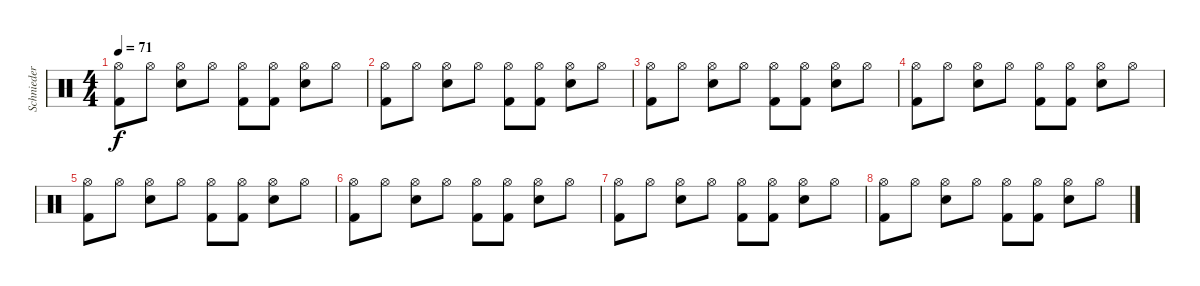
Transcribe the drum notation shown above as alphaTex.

\track ("Schnieder" "Schnieder") {instrument percussion}
\staff {score}
\articulation defaults
\ts (4 4)
\tempo 71
\clef neutral
\ks c
("Hi-Hat (open)" "Kick (hit) 2").8{dy f} "Hi-Hat (open)".8 ("Hi-Hat (open)" "Electric Snare (hit)").8 "Hi-Hat (open)".8 ("Hi-Hat (open)" "Kick (hit) 2").8 ("Hi-Hat (open)" "Kick (hit) 2").8 ("Hi-Hat (open)" "Electric Snare (hit)").8 "Hi-Hat (open)".8 |
("Hi-Hat (open)" "Kick (hit) 2").8 "Hi-Hat (open)".8 ("Hi-Hat (open)" "Electric Snare (hit)").8 "Hi-Hat (open)".8 ("Hi-Hat (open)" "Kick (hit) 2").8 ("Hi-Hat (open)" "Kick (hit) 2").8 ("Hi-Hat (open)" "Electric Snare (hit)").8 "Hi-Hat (open)".8 |
("Hi-Hat (open)" "Kick (hit) 2").8 "Hi-Hat (open)".8 ("Hi-Hat (open)" "Electric Snare (hit)").8 "Hi-Hat (open)".8 ("Hi-Hat (open)" "Kick (hit) 2").8 ("Hi-Hat (open)" "Kick (hit) 2").8 ("Hi-Hat (open)" "Electric Snare (hit)").8 "Hi-Hat (open)".8 |
("Hi-Hat (open)" "Kick (hit) 2").8 "Hi-Hat (open)".8 ("Hi-Hat (open)" "Electric Snare (hit)").8 "Hi-Hat (open)".8 ("Hi-Hat (open)" "Kick (hit) 2").8 ("Hi-Hat (open)" "Kick (hit) 2").8 ("Hi-Hat (open)" "Electric Snare (hit)").8 "Hi-Hat (open)".8 |
("Hi-Hat (open)" "Kick (hit) 2").8 "Hi-Hat (open)".8 ("Hi-Hat (open)" "Electric Snare (hit)").8 "Hi-Hat (open)".8 ("Hi-Hat (open)" "Kick (hit) 2").8 ("Hi-Hat (open)" "Kick (hit) 2").8 ("Hi-Hat (open)" "Electric Snare (hit)").8 "Hi-Hat (open)".8 |
("Hi-Hat (open)" "Kick (hit) 2").8 "Hi-Hat (open)".8 ("Hi-Hat (open)" "Electric Snare (hit)").8 "Hi-Hat (open)".8 ("Hi-Hat (open)" "Kick (hit) 2").8 ("Hi-Hat (open)" "Kick (hit) 2").8 ("Hi-Hat (open)" "Electric Snare (hit)").8 "Hi-Hat (open)".8 |
("Hi-Hat (open)" "Kick (hit) 2").8 "Hi-Hat (open)".8 ("Hi-Hat (open)" "Electric Snare (hit)").8 "Hi-Hat (open)".8 ("Hi-Hat (open)" "Kick (hit) 2").8 ("Hi-Hat (open)" "Kick (hit) 2").8 ("Hi-Hat (open)" "Electric Snare (hit)").8 "Hi-Hat (open)".8 |
("Hi-Hat (open)" "Kick (hit) 2").8 "Hi-Hat (open)".8 ("Hi-Hat (open)" "Electric Snare (hit)").8 "Hi-Hat (open)".8 ("Hi-Hat (open)" "Kick (hit) 2").8 ("Hi-Hat (open)" "Kick (hit) 2").8 ("Hi-Hat (open)" "Electric Snare (hit)").8 "Hi-Hat (open)".8
